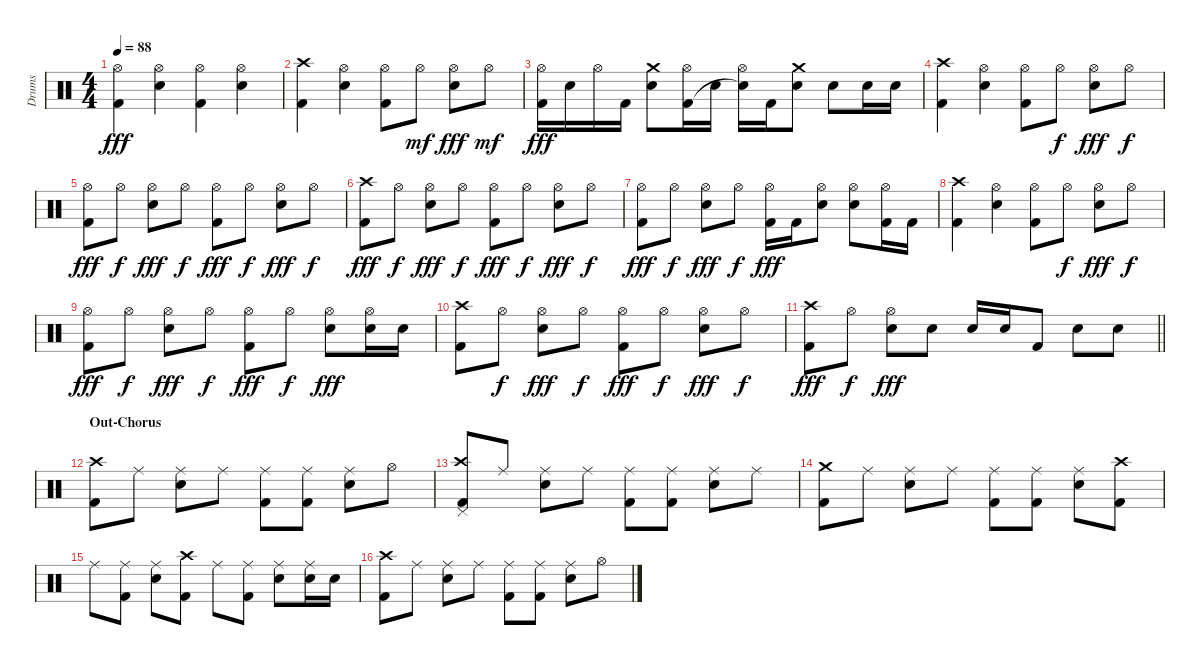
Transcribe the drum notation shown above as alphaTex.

\track ("Drums" "Drums") {instrument percussion}
\staff {score}
\articulation defaults
\ts (4 4)
\tempo 88
\clef neutral
\ks c
("Hi-Hat (open)" "Kick (hit) 2").4{dy fff} ("Hi-Hat (open)" "Snare (hit) 2").4 ("Hi-Hat (open)" "Kick (hit) 2").4 ("Hi-Hat (open)" "Snare (hit) 2").4 |
("Crash high (hit)" "Kick (hit) 2").4 ("Hi-Hat (open)" "Snare (hit) 2").4 ("Hi-Hat (open)" "Kick (hit) 2").8 "Hi-Hat (open)".8{dy mf} ("Hi-Hat (open)" "Snare (hit) 2").8{dy fff} "Hi-Hat (open)".8{dy mf} |
("Hi-Hat (open)" "Kick (hit) 2").16{dy fff} "Snare (hit) 2".16 "Hi-Hat (open)".16 "Kick (hit) 2".16 ("Crash medium (hit)" "Snare (hit) 2").8 ("Hi-Hat (open)" "Kick (hit) 2").16 "Snare (hit) 2".16 ("Hi-Hat (open)" "Snare (hit)"{t}).16 "Kick (hit) 2".16 ("Crash medium (hit)" "Snare (hit) 2").8 "Snare (hit) 2".8 "Snare (hit) 2".16 "Snare (hit) 2".16 |
("Crash high (hit)" "Kick (hit) 2").4 ("Hi-Hat (open)" "Snare (hit) 2").4 ("Hi-Hat (open)" "Kick (hit) 2").8 "Hi-Hat (open)".8{dy f} ("Hi-Hat (open)" "Snare (hit) 2").8{dy fff} "Hi-Hat (open)".8{dy f} |
("Hi-Hat (open)" "Kick (hit) 2").8{dy fff} "Hi-Hat (open)".8{dy f} ("Hi-Hat (open)" "Snare (hit) 2").8{dy fff} "Hi-Hat (open)".8{dy f} ("Hi-Hat (open)" "Kick (hit) 2").8{dy fff} "Hi-Hat (open)".8{dy f} ("Hi-Hat (open)" "Snare (hit) 2").8{dy fff} "Hi-Hat (open)".8{dy f} |
("Crash high (hit)" "Kick (hit) 2").8{dy fff} "Hi-Hat (open)".8{dy f} ("Hi-Hat (open)" "Snare (hit) 2").8{dy fff} "Hi-Hat (open)".8{dy f} ("Hi-Hat (open)" "Kick (hit) 2").8{dy fff} "Hi-Hat (open)".8{dy f} ("Hi-Hat (open)" "Snare (hit) 2").8{dy fff} "Hi-Hat (open)".8{dy f} |
("Hi-Hat (open)" "Kick (hit) 2").8{dy fff} "Hi-Hat (open)".8{dy f} ("Hi-Hat (open)" "Snare (hit) 2").8{dy fff} "Hi-Hat (open)".8{dy f} ("Hi-Hat (open)" "Kick (hit) 2").16{dy fff} "Kick (hit) 2".16 ("Hi-Hat (open)" "Snare (hit) 2").8 ("Hi-Hat (open)" "Snare (hit) 2").8 ("Hi-Hat (open)" "Kick (hit) 2").16 "Kick (hit) 2".16 |
("Crash high (hit)" "Kick (hit) 2").4 ("Hi-Hat (open)" "Snare (hit) 2").4 ("Hi-Hat (open)" "Kick (hit) 2").8 "Hi-Hat (open)".8{dy f} ("Hi-Hat (open)" "Snare (hit) 2").8{dy fff} "Hi-Hat (open)".8{dy f} |
("Hi-Hat (open)" "Kick (hit) 2").8{dy fff} "Hi-Hat (open)".8{dy f} ("Hi-Hat (open)" "Snare (hit) 2").8{dy fff} "Hi-Hat (open)".8{dy f} ("Hi-Hat (open)" "Kick (hit) 2").8{dy fff} "Hi-Hat (open)".8{dy f} ("Hi-Hat (open)" "Snare (hit) 2").8{dy fff} ("Hi-Hat (open)" "Snare (hit) 2").16 "Snare (hit) 2".16 |
("Crash high (hit)" "Kick (hit) 2").8 "Hi-Hat (open)".8{dy f} ("Hi-Hat (open)" "Snare (hit) 2").8{dy fff} "Hi-Hat (open)".8{dy f} ("Hi-Hat (open)" "Kick (hit) 2").8{dy fff} "Hi-Hat (open)".8{dy f} ("Hi-Hat (open)" "Snare (hit) 2").8{dy fff} "Hi-Hat (open)".8{dy f} |
\barLineRight lightlight
("Crash high (hit)" "Kick (hit) 2").8{dy fff} "Hi-Hat (open)".8{dy f} ("Hi-Hat (open)" "Snare (hit) 2").8{dy fff} "Snare (hit) 2".8 "Snare (hit) 2".16 "Snare (hit) 2".16 "Kick (hit) 2".8 "Snare (hit) 2".8 "Snare (hit) 2".8 |
\section ("" "Out-Chorus")
("Crash high (hit)" "Kick (hit) 2").8 "Ride (middle)".8 ("Ride (middle)" "Snare (hit) 2").8 "Ride (middle)".8 ("Ride (middle)" "Kick (hit) 2").8 ("Ride (middle)" "Kick (hit) 2").8 ("Ride (middle)" "Snare (hit) 2").8 "Hi-Hat (open)".8 |
("Pedal Hi-Hat (hit)" "Crash high (hit)" "Kick (hit) 2").8 "Ride (middle)".8 ("Ride (middle)" "Snare (hit) 2").8 "Ride (middle)".8 ("Ride (middle)" "Kick (hit) 2").8 ("Ride (middle)" "Kick (hit) 2").8 ("Ride (middle)" "Snare (hit) 2").8 "Ride (middle)".8 |
("Crash medium (hit)" "Kick (hit) 2").8 "Ride (middle)".8 ("Ride (middle)" "Snare (hit) 2").8 "Ride (middle)".8 ("Ride (middle)" "Kick (hit) 2").8 ("Ride (middle)" "Kick (hit) 2").8 ("Ride (middle)" "Snare (hit) 2").8 ("Crash high (hit)" "Kick (hit) 2").8 |
"Ride (middle)".8 ("Ride (middle)" "Kick (hit) 2").8 ("Ride (middle)" "Snare (hit) 2").8 ("Crash high (hit)" "Kick (hit) 2").8 "Ride (middle)".8 ("Ride (middle)" "Kick (hit) 2").8 ("Ride (middle)" "Snare (hit) 2").8 ("Ride (middle)" "Snare (hit) 2").16 "Snare (hit) 2".16 |
("Crash high (hit)" "Kick (hit) 2").8 "Ride (middle)".8 ("Ride (middle)" "Snare (hit) 2").8 "Ride (middle)".8 ("Ride (middle)" "Kick (hit) 2").8 ("Ride (middle)" "Kick (hit) 2").8 ("Ride (middle)" "Snare (hit) 2").8 "Hi-Hat (open)".8
